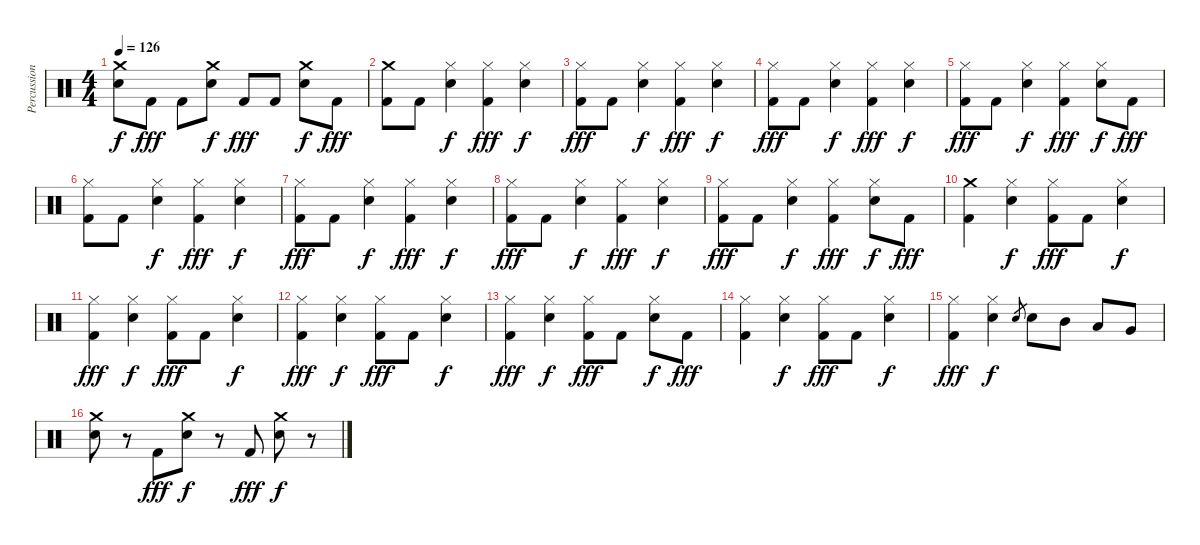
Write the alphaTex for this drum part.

\track ("Percussion" "Percussion") {instrument percussion}
\staff {score}
\articulation defaults
\ts (4 4)
\tempo 126
\clef neutral
\ks c
("Crash medium (hit)" "Electric Snare (hit)").8{dy f} "Kick (hit) 2".8{dy fff} "Kick (hit) 2".8 ("Crash medium (hit)" "Electric Snare (hit)").8{dy f} "Kick (hit) 2".8{dy fff} "Kick (hit) 2".8 ("Crash medium (hit)" "Electric Snare (hit)").8{dy f} "Kick (hit) 2".8{dy fff} |
("Crash medium (hit)" "Kick (hit) 2").8 "Kick (hit) 2".8 ("Hi-Hat (closed)" "Electric Snare (hit)").4{dy f} ("Hi-Hat (closed)" "Kick (hit) 2").4{dy fff} ("Hi-Hat (closed)" "Electric Snare (hit)").4{dy f} |
("Hi-Hat (closed)" "Kick (hit) 2").8{dy fff} "Kick (hit) 2".8 ("Hi-Hat (closed)" "Electric Snare (hit)").4{dy f} ("Hi-Hat (closed)" "Kick (hit) 2").4{dy fff} ("Hi-Hat (closed)" "Electric Snare (hit)").4{dy f} |
("Hi-Hat (closed)" "Kick (hit) 2").8{dy fff} "Kick (hit) 2".8 ("Hi-Hat (closed)" "Electric Snare (hit)").4{dy f} ("Hi-Hat (closed)" "Kick (hit) 2").4{dy fff} ("Hi-Hat (closed)" "Electric Snare (hit)").4{dy f} |
("Hi-Hat (closed)" "Kick (hit) 2").8{dy fff} "Kick (hit) 2".8 ("Hi-Hat (closed)" "Electric Snare (hit)").4{dy f} ("Hi-Hat (closed)" "Kick (hit) 2").4{dy fff} ("Hi-Hat (closed)" "Electric Snare (hit)").8{dy f} "Kick (hit) 2".8{dy fff} |
("Hi-Hat (closed)" "Kick (hit) 2").8 "Kick (hit) 2".8 ("Hi-Hat (closed)" "Electric Snare (hit)").4{dy f} ("Hi-Hat (closed)" "Kick (hit) 2").4{dy fff} ("Hi-Hat (closed)" "Electric Snare (hit)").4{dy f} |
("Hi-Hat (closed)" "Kick (hit) 2").8{dy fff} "Kick (hit) 2".8 ("Hi-Hat (closed)" "Electric Snare (hit)").4{dy f} ("Hi-Hat (closed)" "Kick (hit) 2").4{dy fff} ("Hi-Hat (closed)" "Electric Snare (hit)").4{dy f} |
("Hi-Hat (closed)" "Kick (hit) 2").8{dy fff} "Kick (hit) 2".8 ("Hi-Hat (closed)" "Electric Snare (hit)").4{dy f} ("Hi-Hat (closed)" "Kick (hit) 2").4{dy fff} ("Hi-Hat (closed)" "Electric Snare (hit)").4{dy f} |
("Hi-Hat (closed)" "Kick (hit) 2").8{dy fff} "Kick (hit) 2".8 ("Hi-Hat (closed)" "Electric Snare (hit)").4{dy f} ("Hi-Hat (closed)" "Kick (hit) 2").4{dy fff} ("Hi-Hat (closed)" "Electric Snare (hit)").8{dy f} "Kick (hit) 2".8{dy fff} |
("Crash medium (hit)" "Kick (hit) 2").4 ("Hi-Hat (closed)" "Electric Snare (hit)").4{dy f} ("Hi-Hat (closed)" "Kick (hit) 2").8{dy fff} "Kick (hit) 2".8 ("Hi-Hat (closed)" "Electric Snare (hit)").4{dy f} |
("Hi-Hat (closed)" "Kick (hit) 2").4{dy fff} ("Hi-Hat (closed)" "Electric Snare (hit)").4{dy f} ("Hi-Hat (closed)" "Kick (hit) 2").8{dy fff} "Kick (hit) 2".8 ("Hi-Hat (closed)" "Electric Snare (hit)").4{dy f} |
("Hi-Hat (closed)" "Kick (hit) 2").4{dy fff} ("Hi-Hat (closed)" "Electric Snare (hit)").4{dy f} ("Hi-Hat (closed)" "Kick (hit) 2").8{dy fff} "Kick (hit) 2".8 ("Hi-Hat (closed)" "Electric Snare (hit)").4{dy f} |
("Hi-Hat (closed)" "Kick (hit) 2").4{dy fff} ("Hi-Hat (closed)" "Electric Snare (hit)").4{dy f} ("Hi-Hat (closed)" "Kick (hit) 2").8{dy fff} "Kick (hit) 2".8 ("Hi-Hat (closed)" "Electric Snare (hit)").8{dy f} "Kick (hit) 2".8{dy fff} |
("Hi-Hat (closed)" "Kick (hit) 2").4 ("Hi-Hat (closed)" "Electric Snare (hit)").4{dy f} ("Hi-Hat (closed)" "Kick (hit) 2").8{dy fff} "Kick (hit) 2".8 ("Hi-Hat (closed)" "Electric Snare (hit)").4{dy f} |
("Hi-Hat (closed)" "Kick (hit) 2").4{dy fff} ("Hi-Hat (closed)" "Electric Snare (hit)").4{dy f} "Electric Snare (hit)".8{gr} "Electric Snare (hit)".8 "Mid Tom (hit)".8 "Low Tom (hit)".8 "Very Low Tom (hit)".8 |
("Crash medium (hit)" "Electric Snare (hit)").8 r.8 "Kick (hit) 2".8{dy fff} ("Crash medium (hit)" "Electric Snare (hit)").8{dy f} r.8 "Kick (hit) 2".8{dy fff} ("Crash medium (hit)" "Electric Snare (hit)").8{dy f} r.8
